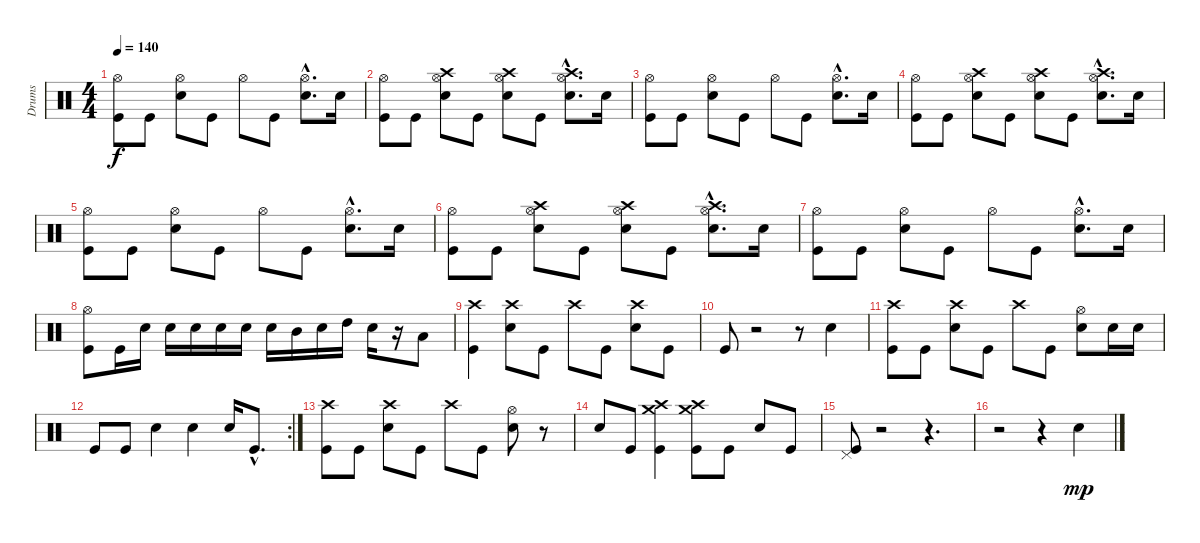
\track ("Drums" "Drums") {instrument percussion}
\staff {score}
\articulation defaults
\ts (4 4)
\tempo 140
\clef neutral
\ks c
("Hi-Hat (open)" "Kick (hit)").8{dy f} "Kick (hit)".8 ("Hi-Hat (open)" "Electric Snare (hit)").8 "Kick (hit)".8 "Hi-Hat (open)".8 "Kick (hit)".8 ("Hi-Hat (open)"{hac} "Electric Snare (hit)"{hac}).8{d} "Electric Snare (hit)".16 |
("Hi-Hat (open)" "Kick (hit)").8 "Kick (hit)".8 ("Hi-Hat (open)" "Crash high (hit)" "Electric Snare (hit)").8 "Kick (hit)".8 ("Crash high (hit)" "Hi-Hat (open)" "Electric Snare (hit)").8 "Kick (hit)".8 ("Crash high (hit)"{hac} "Hi-Hat (open)"{hac} "Electric Snare (hit)"{hac}).8{d} "Electric Snare (hit)".16 |
("Hi-Hat (open)" "Kick (hit)").8 "Kick (hit)".8 ("Hi-Hat (open)" "Electric Snare (hit)").8 "Kick (hit)".8 "Hi-Hat (open)".8 "Kick (hit)".8 ("Hi-Hat (open)"{hac} "Electric Snare (hit)"{hac}).8{d} "Electric Snare (hit)".16 |
("Hi-Hat (open)" "Kick (hit)").8 "Kick (hit)".8 ("Hi-Hat (open)" "Crash high (hit)" "Electric Snare (hit)").8 "Kick (hit)".8 ("Crash high (hit)" "Hi-Hat (open)" "Electric Snare (hit)").8 "Kick (hit)".8 ("Crash high (hit)"{hac} "Hi-Hat (open)"{hac} "Electric Snare (hit)"{hac}).8{d} "Electric Snare (hit)".16 |
("Hi-Hat (open)" "Kick (hit)").8 "Kick (hit)".8 ("Hi-Hat (open)" "Electric Snare (hit)").8 "Kick (hit)".8 "Hi-Hat (open)".8 "Kick (hit)".8 ("Hi-Hat (open)"{hac} "Electric Snare (hit)"{hac}).8{d} "Electric Snare (hit)".16 |
("Hi-Hat (open)" "Kick (hit)").8 "Kick (hit)".8 ("Hi-Hat (open)" "Crash high (hit)" "Electric Snare (hit)").8 "Kick (hit)".8 ("Crash high (hit)" "Hi-Hat (open)" "Electric Snare (hit)").8 "Kick (hit)".8 ("Crash high (hit)"{hac} "Hi-Hat (open)"{hac} "Electric Snare (hit)"{hac}).8{d} "Electric Snare (hit)".16 |
("Hi-Hat (open)" "Kick (hit)").8 "Kick (hit)".8 ("Hi-Hat (open)" "Electric Snare (hit)").8 "Kick (hit)".8 "Hi-Hat (open)".8 "Kick (hit)".8 ("Hi-Hat (open)"{hac} "Electric Snare (hit)"{hac}).8{d} "Electric Snare (hit)".16 |
("Hi-Hat (open)" "Kick (hit)").8 "Kick (hit)".16 "Electric Snare (hit)".16 "Electric Snare (hit)".16 "Electric Snare (hit)".16 "Electric Snare (hit)".16 "Electric Snare (hit)".16 "Electric Snare (hit)".16 "Mid Tom (hit)".16 "Electric Snare (hit)".16 "High Tom (hit)".16 "Electric Snare (hit)".16 r.16 "Low Tom (hit)".8 |
("Crash high (hit)" "Kick (hit)").4 ("Crash high (hit)" "Electric Snare (hit)").8 "Kick (hit)".8 "Crash high (hit)".8 "Kick (hit)".8 ("Crash high (hit)" "Electric Snare (hit)").8 "Kick (hit)".8 |
"Kick (hit)".8 r.2 r.8 "Electric Snare (hit)".4 |
("Kick (hit)" "Crash high (hit)").8 "Kick (hit)".8 ("Crash high (hit)" "Electric Snare (hit)").8 "Kick (hit)".8 "Crash high (hit)".8 "Kick (hit)".8 ("Hi-Hat (open)" "Electric Snare (hit)").8 "Electric Snare (hit)".16 "Electric Snare (hit)".16 |
\rc 2 "Kick (hit)".8 "Kick (hit)".8 "Electric Snare (hit)".4 "Electric Snare (hit)".4 "Electric Snare (hit)".16 "Kick (hit)"{hac}.8{d}
|
("Kick (hit)" "Crash high (hit)").8 "Kick (hit)".8 ("Crash high (hit)" "Electric Snare (hit)").8 "Kick (hit)".8 "Crash high (hit)".8 "Kick (hit)".8 ("Hi-Hat (open)" "Electric Snare (hit)").8 r.8 |
"Electric Snare (hit)".8 "Kick (hit)".8 ("Crash medium (hit)" "Crash high (hit)" "Kick (hit)").4 ("Crash medium (hit)" "Crash high (hit)" "Kick (hit)").8 "Kick (hit)".8 "Electric Snare (hit)".8 "Kick (hit)".8 |
("Kick (hit)" "Pedal Hi-Hat (hit)").8 r.2 r.4{d} |
r.2 r.4 "Electric Snare (hit)".4{dy mp}
